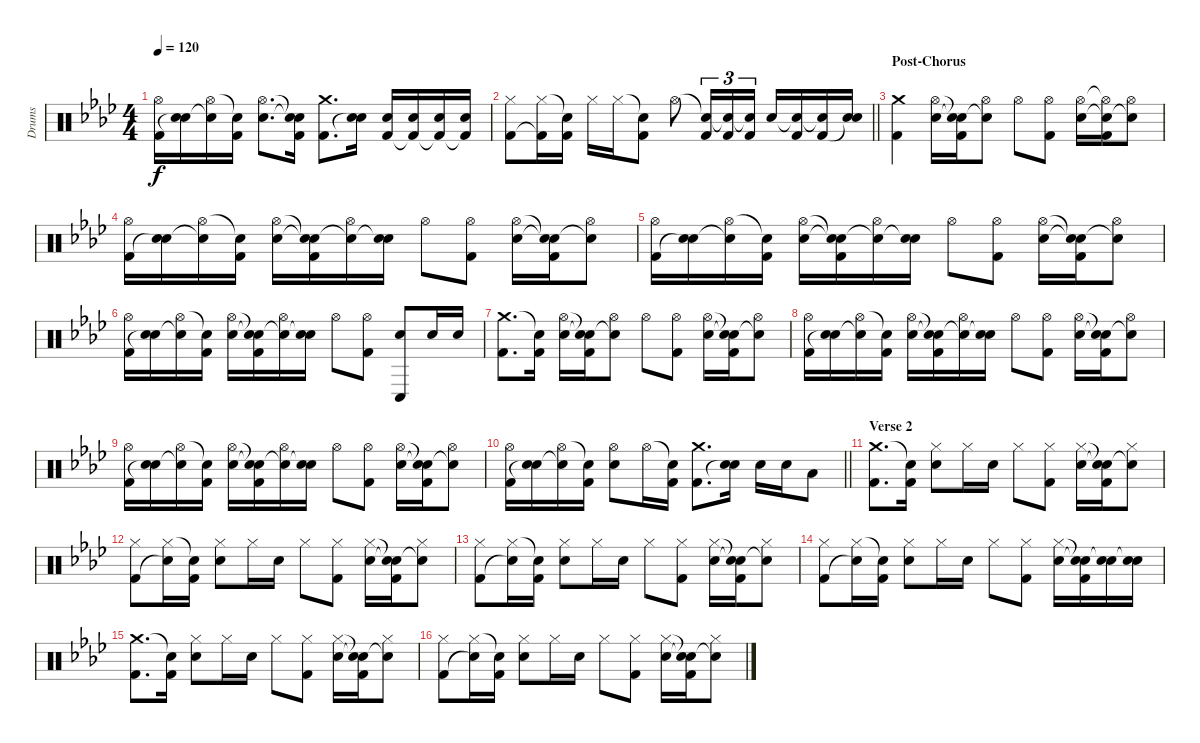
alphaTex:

\track ("Drums" "Drums") {instrument percussion}
\staff {score}
\articulation defaults
\ts (4 4)
\tempo 120
\clef neutral
\ks fminor
("Hi-Hat (open)" "Kick (hit) 2").16{dy f} ("Electric Snare (hit)" "Snare (hit)"{t}).16 ("Hi-Hat (open)" "Snare (hit)"{t}).16 ("Snare (hit)"{t} "Kick (hit) 2").16 ("Hi-Hat (open)" "Electric Snare (hit)").8{d} ("Snare (hit)"{t} "Snare (hit)"{t} "Kick (hit) 2").16 ("Crash medium (hit)" "Kick (hit) 2").8{d} ("Electric Snare (hit)" "Snare (hit)"{t}).16 ("Electric Snare (hit)" "Kick (hit) 2").16 ("Electric Snare (hit)" "Kick (hit) 2"{t}).16 ("Electric Snare (hit)" "Kick (hit) 2"{t}).16 ("Electric Snare (hit)" "Kick (hit) 2"{t}).16 |
\barLineRight lightlight
("Hi-Hat (closed)" "Kick (hit) 2").8 ("Hi-Hat (closed)" "Kick (hit) 2"{t}).16 ("Snare (hit)"{t} "Kick (hit) 2").16 "Hi-Hat (closed)".16 "Hi-Hat (closed)".16 ("Snare (hit)"{t} "Kick (hit) 2").8 "Hi-Hat (open)".8 ("Snare (hit)"{t} "Kick (hit) 2").16{tu (3 2)} ("Snare (hit)"{t} "Kick (hit) 2").16{tu (3 2)} ("Snare (hit)"{t} "Kick (hit) 2").16{tu (3 2)} "Electric Snare (hit)".16 ("Snare (hit)"{t} "Kick (hit) 2").16 ("Snare (hit)"{t} "Kick (hit) 2").16 ("Electric Snare (hit)" "Snare (hit)"{t}).16 |
\section ("" "Post-Chorus")
("Crash medium (hit)" "Kick (hit) 2").4 ("Hi-Hat (open)" "Electric Snare (hit)").16 ("Snare (hit)"{t} "Snare (hit)"{t} "Kick (hit) 2").16 ("Hi-Hat (open)" "Snare (hit)"{t}).8 "Hi-Hat (open)".8 ("Hi-Hat (open)" "Kick (hit) 2").8 ("Hi-Hat (open)" "Electric Snare (hit)").16 ("Hi-Hat (open)"{t} "Snare (hit)"{t} "Kick (hit) 2").16 ("Hi-Hat (open)" "Snare (hit)"{t}).8 |
("Hi-Hat (open)" "Kick (hit) 2").16 ("Electric Snare (hit)" "Snare (hit)"{t}).16 ("Hi-Hat (open)" "Snare (hit)"{t}).16 ("Snare (hit)"{t} "Kick (hit) 2").16 ("Hi-Hat (open)" "Electric Snare (hit)").16 ("Snare (hit)"{t} "Snare (hit)"{t} "Kick (hit) 2").16 ("Hi-Hat (open)" "Snare (hit)"{t}).16 ("Electric Snare (hit)" "Snare (hit)"{t}).16 "Hi-Hat (open)".8 ("Hi-Hat (open)" "Kick (hit) 2").8 ("Hi-Hat (open)" "Electric Snare (hit)").16 ("Snare (hit)"{t} "Snare (hit)"{t} "Kick (hit) 2").16 ("Hi-Hat (open)" "Snare (hit)"{t}).8 |
("Hi-Hat (open)" "Kick (hit) 2").16 ("Electric Snare (hit)" "Snare (hit)"{t}).16 ("Hi-Hat (open)" "Snare (hit)"{t}).16 ("Snare (hit)"{t} "Kick (hit) 2").16 ("Hi-Hat (open)" "Electric Snare (hit)").16 ("Snare (hit)"{t} "Snare (hit)"{t} "Kick (hit) 2").16 ("Hi-Hat (open)" "Snare (hit)"{t}).16 ("Electric Snare (hit)" "Snare (hit)"{t}).16 "Hi-Hat (open)".8 ("Hi-Hat (open)" "Kick (hit) 2").8 ("Hi-Hat (open)" "Electric Snare (hit)").16 ("Snare (hit)"{t} "Snare (hit)"{t} "Kick (hit) 2").16 ("Hi-Hat (open)" "Snare (hit)"{t}).8 |
("Hi-Hat (open)" "Kick (hit) 2").16 ("Electric Snare (hit)" "Snare (hit)"{t}).16 ("Hi-Hat (open)" "Snare (hit)"{t}).16 ("Snare (hit)"{t} "Kick (hit) 2").16 ("Hi-Hat (open)" "Electric Snare (hit)").16 ("Snare (hit)"{t} "Snare (hit)"{t} "Kick (hit) 2").16 ("Hi-Hat (open)" "Snare (hit)"{t}).16 ("Electric Snare (hit)" "Snare (hit)"{t}).16 "Hi-Hat (open)".8 ("Hi-Hat (open)" "Kick (hit) 2").8 ("Conga low (hit)" "Electric Snare (hit)").8 "Electric Snare (hit)".16 "Electric Snare (hit)".16 |
("Crash medium (hit)" "Kick (hit) 2").8{d} ("Snare (hit)"{t} "Kick (hit) 2").16 ("Hi-Hat (open)" "Electric Snare (hit)").16 ("Snare (hit)"{t} "Snare (hit)"{t} "Kick (hit) 2").16 ("Hi-Hat (open)" "Snare (hit)"{t}).8 "Hi-Hat (open)".8 ("Hi-Hat (open)" "Kick (hit) 2").8 ("Hi-Hat (open)" "Electric Snare (hit)").16 ("Snare (hit)"{t} "Snare (hit)"{t} "Kick (hit) 2").16 ("Hi-Hat (open)" "Snare (hit)"{t}).8 |
("Hi-Hat (open)" "Kick (hit) 2").16 ("Electric Snare (hit)" "Snare (hit)"{t}).16 ("Hi-Hat (open)" "Snare (hit)"{t}).16 ("Snare (hit)"{t} "Kick (hit) 2").16 ("Hi-Hat (open)" "Electric Snare (hit)").16 ("Snare (hit)"{t} "Snare (hit)"{t} "Kick (hit) 2").16 ("Hi-Hat (open)" "Snare (hit)"{t}).16 ("Electric Snare (hit)" "Snare (hit)"{t}).16 "Hi-Hat (open)".8 ("Hi-Hat (open)" "Kick (hit) 2").8 ("Hi-Hat (open)" "Electric Snare (hit)").16 ("Snare (hit)"{t} "Snare (hit)"{t} "Kick (hit) 2").16 ("Hi-Hat (open)" "Snare (hit)"{t}).8 |
("Hi-Hat (open)" "Kick (hit) 2").16 ("Electric Snare (hit)" "Snare (hit)"{t}).16 ("Hi-Hat (open)" "Snare (hit)"{t}).16 ("Snare (hit)"{t} "Kick (hit) 2").16 ("Hi-Hat (open)" "Electric Snare (hit)").16 ("Snare (hit)"{t} "Snare (hit)"{t} "Kick (hit) 2").16 ("Hi-Hat (open)" "Snare (hit)"{t}).16 ("Electric Snare (hit)" "Snare (hit)"{t}).16 "Hi-Hat (open)".8 ("Hi-Hat (open)" "Kick (hit) 2").8 ("Hi-Hat (open)" "Electric Snare (hit)").16 ("Snare (hit)"{t} "Snare (hit)"{t} "Kick (hit) 2").16 ("Hi-Hat (open)" "Snare (hit)"{t}).8 |
\barLineRight lightlight
("Hi-Hat (open)" "Kick (hit) 2").16 ("Electric Snare (hit)" "Snare (hit)"{t}).16 ("Hi-Hat (open)" "Snare (hit)"{t}).16 ("Snare (hit)"{t} "Kick (hit) 2").16 ("Hi-Hat (open)" "Electric Snare (hit)").8 "Hi-Hat (open)".16 ("Snare (hit)"{t} "Kick (hit) 2").16 ("Crash medium (hit)" "Kick (hit) 2").8{d} ("Electric Snare (hit)" "Snare (hit)"{t}).16 "Electric Snare (hit)".16 "Electric Snare (hit)".16 "Low Floor Tom (hit)".8 |
\section ("" "Verse 2")
("Crash medium (hit)" "Kick (hit) 2").8{d} ("Snare (hit)"{t} "Kick (hit) 2").16 ("Hi-Hat (closed)" "Electric Snare (hit)").8 "Hi-Hat (closed)".16 "Electric Snare (hit)".16 "Hi-Hat (closed)".8 ("Hi-Hat (closed)" "Kick (hit) 2").8 ("Hi-Hat (closed)" "Electric Snare (hit)").16 ("Snare (hit)"{t} "Snare (hit)"{t} "Kick (hit) 2").16 ("Hi-Hat (closed)" "Snare (hit)"{t}).8 |
("Hi-Hat (closed)" "Kick (hit) 2").8 ("Hi-Hat (closed)" "Snare (hit)"{t}).16 ("Snare (hit)"{t} "Kick (hit) 2").16 ("Hi-Hat (closed)" "Electric Snare (hit)").8 "Hi-Hat (closed)".16 "Electric Snare (hit)".16 "Hi-Hat (closed)".8 ("Hi-Hat (closed)" "Kick (hit) 2").8 ("Hi-Hat (closed)" "Electric Snare (hit)").16 ("Snare (hit)"{t} "Snare (hit)"{t} "Kick (hit) 2").16 ("Hi-Hat (closed)" "Snare (hit)"{t}).8 |
("Hi-Hat (closed)" "Kick (hit) 2").8 ("Hi-Hat (closed)" "Snare (hit)"{t}).16 ("Snare (hit)"{t} "Kick (hit) 2").16 ("Hi-Hat (closed)" "Electric Snare (hit)").8 "Hi-Hat (closed)".16 "Electric Snare (hit)".16 "Hi-Hat (closed)".8 ("Hi-Hat (closed)" "Kick (hit) 2").8 ("Hi-Hat (closed)" "Electric Snare (hit)").16 ("Snare (hit)"{t} "Snare (hit)"{t} "Kick (hit) 2").16 ("Hi-Hat (closed)" "Snare (hit)"{t}).8 |
("Hi-Hat (closed)" "Kick (hit) 2").8 ("Hi-Hat (closed)" "Snare (hit)"{t}).16 ("Snare (hit)"{t} "Kick (hit) 2").16 ("Hi-Hat (closed)" "Electric Snare (hit)").8 "Hi-Hat (closed)".16 "Electric Snare (hit)".16 "Hi-Hat (closed)".8 ("Hi-Hat (closed)" "Kick (hit) 2").8 ("Hi-Hat (closed)" "Electric Snare (hit)").16 ("Snare (hit)"{t} "Snare (hit)"{t} "Kick (hit) 2").16 ("Electric Snare (hit)" "Snare (hit)"{t}).16 ("Electric Snare (hit)" "Snare (hit)"{t}).16 |
("Crash medium (hit)" "Kick (hit) 2").8{d} ("Snare (hit)"{t} "Kick (hit) 2").16 ("Hi-Hat (closed)" "Electric Snare (hit)").8 "Hi-Hat (closed)".16 "Electric Snare (hit)".16 "Hi-Hat (closed)".8 ("Hi-Hat (closed)" "Kick (hit) 2").8 ("Hi-Hat (closed)" "Electric Snare (hit)").16 ("Snare (hit)"{t} "Snare (hit)"{t} "Kick (hit) 2").16 ("Hi-Hat (closed)" "Snare (hit)"{t}).8 |
("Hi-Hat (closed)" "Kick (hit) 2").8 ("Hi-Hat (closed)" "Snare (hit)"{t}).16 ("Snare (hit)"{t} "Kick (hit) 2").16 ("Hi-Hat (closed)" "Electric Snare (hit)").8 "Hi-Hat (closed)".16 "Electric Snare (hit)".16 "Hi-Hat (closed)".8 ("Hi-Hat (closed)" "Kick (hit) 2").8 ("Hi-Hat (closed)" "Electric Snare (hit)").16 ("Snare (hit)"{t} "Snare (hit)"{t} "Kick (hit) 2").16 ("Hi-Hat (closed)" "Snare (hit)"{t}).8
